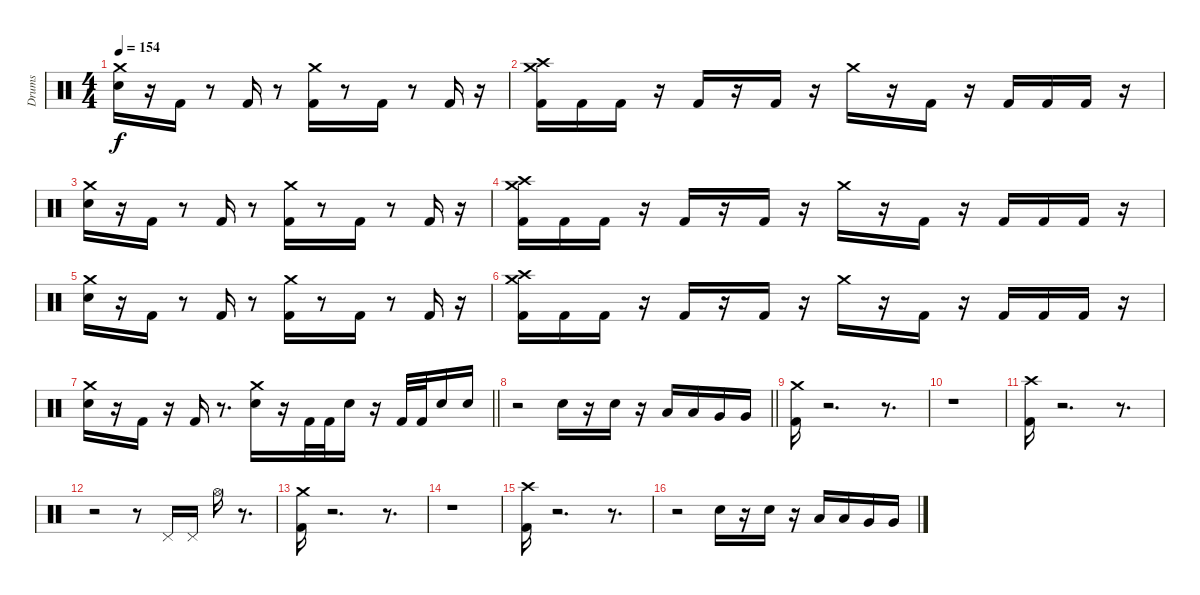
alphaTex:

\track ("Drums" "Drums") {instrument percussion}
\staff {score}
\articulation defaults
\ts (4 4)
\tempo 154
\clef neutral
\ks c
("Snare (hit) 2" "Crash medium (hit)").16{dy f} r.16 "Kick (hit) 2".16 r.8 "Kick (hit) 2".16 r.8 ("Kick (hit) 2" "Crash medium (hit)").16 r.8 "Kick (hit) 2".16 r.8 "Kick (hit) 2".16 r.16 |
("Kick (hit) 2" "Crash high (hit)" "Crash medium (hit)").16 "Kick (hit) 2".16 "Kick (hit) 2".16 r.16 "Kick (hit) 2".16 r.16 "Kick (hit) 2".16 r.16 "Crash medium (hit)".16 r.16 "Kick (hit) 2".16 r.16 "Kick (hit) 2".16 "Kick (hit) 2".16 "Kick (hit) 2".16 r.16 |
("Snare (hit) 2" "Crash medium (hit)").16 r.16 "Kick (hit) 2".16 r.8 "Kick (hit) 2".16 r.8 ("Kick (hit) 2" "Crash medium (hit)").16 r.8 "Kick (hit) 2".16 r.8 "Kick (hit) 2".16 r.16 |
("Kick (hit) 2" "Crash high (hit)" "Crash medium (hit)").16 "Kick (hit) 2".16 "Kick (hit) 2".16 r.16 "Kick (hit) 2".16 r.16 "Kick (hit) 2".16 r.16 "Crash medium (hit)".16 r.16 "Kick (hit) 2".16 r.16 "Kick (hit) 2".16 "Kick (hit) 2".16 "Kick (hit) 2".16 r.16 |
("Snare (hit) 2" "Crash medium (hit)").16 r.16 "Kick (hit) 2".16 r.8 "Kick (hit) 2".16 r.8 ("Kick (hit) 2" "Crash medium (hit)").16 r.8 "Kick (hit) 2".16 r.8 "Kick (hit) 2".16 r.16 |
("Kick (hit) 2" "Crash high (hit)" "Crash medium (hit)").16 "Kick (hit) 2".16 "Kick (hit) 2".16 r.16 "Kick (hit) 2".16 r.16 "Kick (hit) 2".16 r.16 "Crash medium (hit)".16 r.16 "Kick (hit) 2".16 r.16 "Kick (hit) 2".16 "Kick (hit) 2".16 "Kick (hit) 2".16 r.16 |
\barLineRight lightlight
("Snare (hit) 2" "Crash medium (hit)").16 r.16 "Kick (hit) 2".16 r.16 "Kick (hit) 2".16 r.8{d} ("Snare (hit) 2" "Crash medium (hit)").16 r.16 "Kick (hit) 2".32 "Kick (hit) 2".32 "Snare (hit) 2".16 r.16 "Kick (hit) 2".32 "Kick (hit) 2".32 "Snare (hit) 2".16 "Snare (hit) 2".16 |
\section ("" " ")
\barLineRight lightlight
r.2 "Snare (hit) 2".16 r.16 "Snare (hit) 2".16 r.16 "Low Tom (hit)".16 "Low Tom (hit)".16 "Very Low Tom (hit)".16 "Very Low Tom (hit)".16 |
\section ("" " ")
("Kick (hit) 2" "Crash medium (hit)").16 r.2{d} r.8{d} |
r.1 |
("Kick (hit) 2" "Crash high (hit)").16 r.2{d} r.8{d} |
r.2 r.8 "Pedal Hi-Hat (hit)".16 "Pedal Hi-Hat (hit)".16 "Hi-Hat (open)".16 r.8{d} |
("Kick (hit) 2" "Crash medium (hit)").16 r.2{d} r.8{d} |
r.1 |
("Kick (hit) 2" "Crash high (hit)").16 r.2{d} r.8{d} |
r.2 "Snare (hit) 2".16 r.16 "Snare (hit) 2".16 r.16 "Low Tom (hit)".16 "Low Tom (hit)".16 "Very Low Tom (hit)".16 "Very Low Tom (hit)".16
